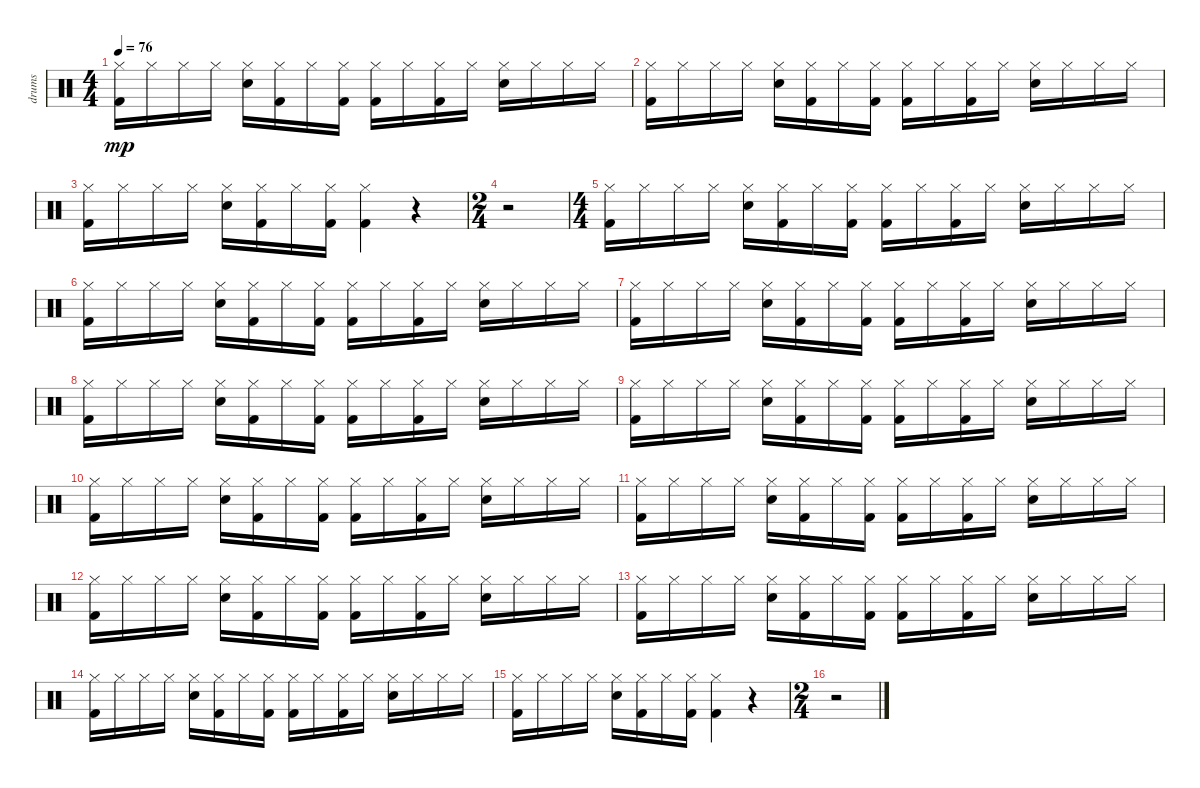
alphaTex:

\track ("drums" "drums") {instrument percussion}
\staff {score}
\articulation defaults
\ts (4 4)
\tempo 76
\clef neutral
\ks c
("Hi-Hat (closed)" "Kick (hit) 2").16{dy mp} "Hi-Hat (closed)".16 "Hi-Hat (closed)".16 "Hi-Hat (closed)".16 ("Hi-Hat (closed)" "Snare (hit) 2").16 ("Hi-Hat (closed)" "Kick (hit) 2").16 "Hi-Hat (closed)".16 ("Hi-Hat (closed)" "Kick (hit) 2").16 ("Hi-Hat (closed)" "Kick (hit) 2").16 "Hi-Hat (closed)".16 ("Hi-Hat (closed)" "Kick (hit) 2").16 "Hi-Hat (closed)".16 ("Snare (hit) 2" "Hi-Hat (closed)").16 "Hi-Hat (closed)".16 "Hi-Hat (closed)".16 "Hi-Hat (closed)".16 |
("Hi-Hat (closed)" "Kick (hit) 2").16 "Hi-Hat (closed)".16 "Hi-Hat (closed)".16 "Hi-Hat (closed)".16 ("Hi-Hat (closed)" "Snare (hit) 2").16 ("Hi-Hat (closed)" "Kick (hit) 2").16 "Hi-Hat (closed)".16 ("Hi-Hat (closed)" "Kick (hit) 2").16 ("Hi-Hat (closed)" "Kick (hit) 2").16 "Hi-Hat (closed)".16 ("Hi-Hat (closed)" "Kick (hit) 2").16 "Hi-Hat (closed)".16 ("Snare (hit) 2" "Hi-Hat (closed)").16 "Hi-Hat (closed)".16 "Hi-Hat (closed)".16 "Hi-Hat (closed)".16 |
("Hi-Hat (closed)" "Kick (hit) 2").16 "Hi-Hat (closed)".16 "Hi-Hat (closed)".16 "Hi-Hat (closed)".16 ("Hi-Hat (closed)" "Snare (hit) 2").16 ("Hi-Hat (closed)" "Kick (hit) 2").16 "Hi-Hat (closed)".16 ("Hi-Hat (closed)" "Kick (hit) 2").16 ("Hi-Hat (closed)" "Kick (hit) 2").4 r.4 |
\ts (2 4)
r.2 |
\ts (4 4)
("Hi-Hat (closed)" "Kick (hit) 2").16 "Hi-Hat (closed)".16 "Hi-Hat (closed)".16 "Hi-Hat (closed)".16 ("Hi-Hat (closed)" "Snare (hit) 2").16 ("Hi-Hat (closed)" "Kick (hit) 2").16 "Hi-Hat (closed)".16 ("Hi-Hat (closed)" "Kick (hit) 2").16 ("Hi-Hat (closed)" "Kick (hit) 2").16 "Hi-Hat (closed)".16 ("Hi-Hat (closed)" "Kick (hit) 2").16 "Hi-Hat (closed)".16 ("Snare (hit) 2" "Hi-Hat (closed)").16 "Hi-Hat (closed)".16 "Hi-Hat (closed)".16 "Hi-Hat (closed)".16 |
("Hi-Hat (closed)" "Kick (hit) 2").16 "Hi-Hat (closed)".16 "Hi-Hat (closed)".16 "Hi-Hat (closed)".16 ("Hi-Hat (closed)" "Snare (hit) 2").16 ("Hi-Hat (closed)" "Kick (hit) 2").16 "Hi-Hat (closed)".16 ("Hi-Hat (closed)" "Kick (hit) 2").16 ("Hi-Hat (closed)" "Kick (hit) 2").16 "Hi-Hat (closed)".16 ("Hi-Hat (closed)" "Kick (hit) 2").16 "Hi-Hat (closed)".16 ("Snare (hit) 2" "Hi-Hat (closed)").16 "Hi-Hat (closed)".16 "Hi-Hat (closed)".16 "Hi-Hat (closed)".16 |
("Hi-Hat (closed)" "Kick (hit) 2").16 "Hi-Hat (closed)".16 "Hi-Hat (closed)".16 "Hi-Hat (closed)".16 ("Hi-Hat (closed)" "Snare (hit) 2").16 ("Hi-Hat (closed)" "Kick (hit) 2").16 "Hi-Hat (closed)".16 ("Hi-Hat (closed)" "Kick (hit) 2").16 ("Hi-Hat (closed)" "Kick (hit) 2").16 "Hi-Hat (closed)".16 ("Hi-Hat (closed)" "Kick (hit) 2").16 "Hi-Hat (closed)".16 ("Snare (hit) 2" "Hi-Hat (closed)").16 "Hi-Hat (closed)".16 "Hi-Hat (closed)".16 "Hi-Hat (closed)".16 |
("Hi-Hat (closed)" "Kick (hit) 2").16 "Hi-Hat (closed)".16 "Hi-Hat (closed)".16 "Hi-Hat (closed)".16 ("Hi-Hat (closed)" "Snare (hit) 2").16 ("Hi-Hat (closed)" "Kick (hit) 2").16 "Hi-Hat (closed)".16 ("Hi-Hat (closed)" "Kick (hit) 2").16 ("Hi-Hat (closed)" "Kick (hit) 2").16 "Hi-Hat (closed)".16 ("Hi-Hat (closed)" "Kick (hit) 2").16 "Hi-Hat (closed)".16 ("Snare (hit) 2" "Hi-Hat (closed)").16 "Hi-Hat (closed)".16 "Hi-Hat (closed)".16 "Hi-Hat (closed)".16 |
("Hi-Hat (closed)" "Kick (hit) 2").16 "Hi-Hat (closed)".16 "Hi-Hat (closed)".16 "Hi-Hat (closed)".16 ("Hi-Hat (closed)" "Snare (hit) 2").16 ("Hi-Hat (closed)" "Kick (hit) 2").16 "Hi-Hat (closed)".16 ("Hi-Hat (closed)" "Kick (hit) 2").16 ("Hi-Hat (closed)" "Kick (hit) 2").16 "Hi-Hat (closed)".16 ("Hi-Hat (closed)" "Kick (hit) 2").16 "Hi-Hat (closed)".16 ("Snare (hit) 2" "Hi-Hat (closed)").16 "Hi-Hat (closed)".16 "Hi-Hat (closed)".16 "Hi-Hat (closed)".16 |
("Hi-Hat (closed)" "Kick (hit) 2").16 "Hi-Hat (closed)".16 "Hi-Hat (closed)".16 "Hi-Hat (closed)".16 ("Hi-Hat (closed)" "Snare (hit) 2").16 ("Hi-Hat (closed)" "Kick (hit) 2").16 "Hi-Hat (closed)".16 ("Hi-Hat (closed)" "Kick (hit) 2").16 ("Hi-Hat (closed)" "Kick (hit) 2").16 "Hi-Hat (closed)".16 ("Hi-Hat (closed)" "Kick (hit) 2").16 "Hi-Hat (closed)".16 ("Snare (hit) 2" "Hi-Hat (closed)").16 "Hi-Hat (closed)".16 "Hi-Hat (closed)".16 "Hi-Hat (closed)".16 |
("Hi-Hat (closed)" "Kick (hit) 2").16 "Hi-Hat (closed)".16 "Hi-Hat (closed)".16 "Hi-Hat (closed)".16 ("Hi-Hat (closed)" "Snare (hit) 2").16 ("Hi-Hat (closed)" "Kick (hit) 2").16 "Hi-Hat (closed)".16 ("Hi-Hat (closed)" "Kick (hit) 2").16 ("Hi-Hat (closed)" "Kick (hit) 2").16 "Hi-Hat (closed)".16 ("Hi-Hat (closed)" "Kick (hit) 2").16 "Hi-Hat (closed)".16 ("Snare (hit) 2" "Hi-Hat (closed)").16 "Hi-Hat (closed)".16 "Hi-Hat (closed)".16 "Hi-Hat (closed)".16 |
("Hi-Hat (closed)" "Kick (hit) 2").16 "Hi-Hat (closed)".16 "Hi-Hat (closed)".16 "Hi-Hat (closed)".16 ("Hi-Hat (closed)" "Snare (hit) 2").16 ("Hi-Hat (closed)" "Kick (hit) 2").16 "Hi-Hat (closed)".16 ("Hi-Hat (closed)" "Kick (hit) 2").16 ("Hi-Hat (closed)" "Kick (hit) 2").16 "Hi-Hat (closed)".16 ("Hi-Hat (closed)" "Kick (hit) 2").16 "Hi-Hat (closed)".16 ("Snare (hit) 2" "Hi-Hat (closed)").16 "Hi-Hat (closed)".16 "Hi-Hat (closed)".16 "Hi-Hat (closed)".16 |
("Hi-Hat (closed)" "Kick (hit) 2").16 "Hi-Hat (closed)".16 "Hi-Hat (closed)".16 "Hi-Hat (closed)".16 ("Hi-Hat (closed)" "Snare (hit) 2").16 ("Hi-Hat (closed)" "Kick (hit) 2").16 "Hi-Hat (closed)".16 ("Hi-Hat (closed)" "Kick (hit) 2").16 ("Hi-Hat (closed)" "Kick (hit) 2").16 "Hi-Hat (closed)".16 ("Hi-Hat (closed)" "Kick (hit) 2").16 "Hi-Hat (closed)".16 ("Snare (hit) 2" "Hi-Hat (closed)").16 "Hi-Hat (closed)".16 "Hi-Hat (closed)".16 "Hi-Hat (closed)".16 |
("Hi-Hat (closed)" "Kick (hit) 2").16 "Hi-Hat (closed)".16 "Hi-Hat (closed)".16 "Hi-Hat (closed)".16 ("Hi-Hat (closed)" "Snare (hit) 2").16 ("Hi-Hat (closed)" "Kick (hit) 2").16 "Hi-Hat (closed)".16 ("Hi-Hat (closed)" "Kick (hit) 2").16 ("Hi-Hat (closed)" "Kick (hit) 2").16 "Hi-Hat (closed)".16 ("Hi-Hat (closed)" "Kick (hit) 2").16 "Hi-Hat (closed)".16 ("Snare (hit) 2" "Hi-Hat (closed)").16 "Hi-Hat (closed)".16 "Hi-Hat (closed)".16 "Hi-Hat (closed)".16 |
("Hi-Hat (closed)" "Kick (hit) 2").16 "Hi-Hat (closed)".16 "Hi-Hat (closed)".16 "Hi-Hat (closed)".16 ("Hi-Hat (closed)" "Snare (hit) 2").16 ("Hi-Hat (closed)" "Kick (hit) 2").16 "Hi-Hat (closed)".16 ("Hi-Hat (closed)" "Kick (hit) 2").16 ("Hi-Hat (closed)" "Kick (hit) 2").4 r.4 |
\ts (2 4)
r.2
